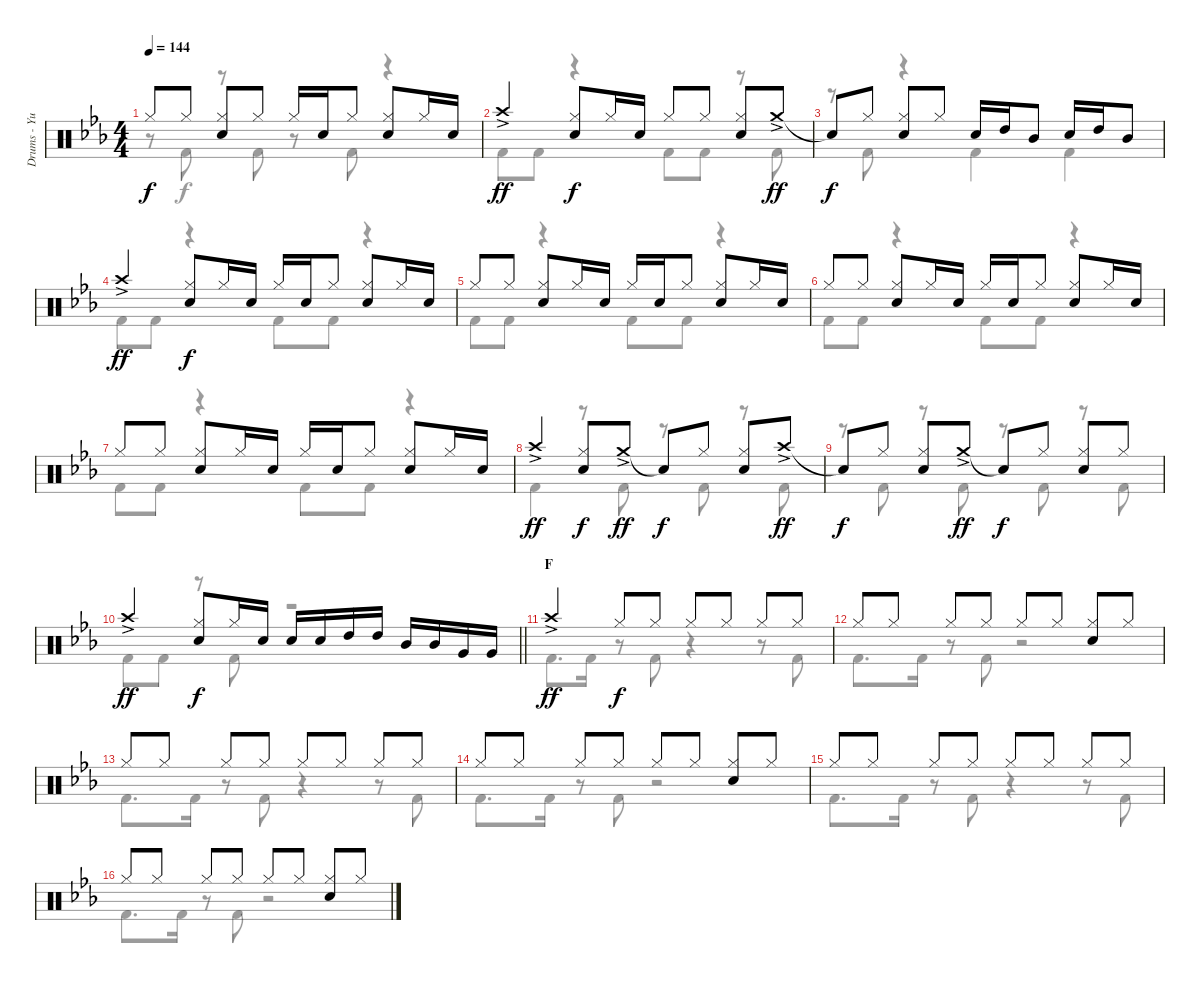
\track ("Drums - Yuuya" "Drums - Yu") {instrument percussion}
\staff {score}
\articulation defaults
\voice
\ts (4 4)
\tempo 144
\clef neutral
\ks eb "Hi-Hat (closed)".8{dy f} "Hi-Hat (closed)".8
("Hi-Hat (closed)" "Snare (hit) 2").8 "Hi-Hat (closed)".8 "Hi-Hat (closed)".16 "Snare (hit) 2".16 "Hi-Hat (closed)".8 ("Hi-Hat (closed)" "Snare (hit) 2").8 "Hi-Hat (closed)".16 "Snare (hit) 2".16 |
"Crash high (hit)"{ac}.4{dy ff} ("Hi-Hat (closed)" "Snare (hit) 2").8{dy f} "Hi-Hat (closed)".16 "Snare (hit) 2".16 "Hi-Hat (closed)".8 "Hi-Hat (closed)".8 ("Hi-Hat (closed)" "Snare (hit) 2").8 "Crash medium (hit)"{ac}.8{dy ff} |
"Snare (hit)"{t}.8{dy f} "Hi-Hat (closed)".8 ("Hi-Hat (closed)" "Snare (hit) 2").8 "Hi-Hat (closed)".8 "Snare (hit) 2".16 "High Tom (hit)".16 "Mid Tom (hit)".8 "Snare (hit) 2".16 "High Tom (hit)".16 "Mid Tom (hit)".8 |
"Crash high (hit)"{ac}.4{dy ff} ("Hi-Hat (closed)" "Snare (hit) 2").8{dy f} "Hi-Hat (closed)".16 "Snare (hit) 2".16 "Hi-Hat (closed)".16 "Snare (hit) 2".16 "Hi-Hat (closed)".8 ("Hi-Hat (closed)" "Snare (hit) 2").8 "Hi-Hat (closed)".16 "Snare (hit) 2".16 |
"Hi-Hat (closed)".8 "Hi-Hat (closed)".8 ("Hi-Hat (closed)" "Snare (hit) 2").8 "Hi-Hat (closed)".16 "Snare (hit) 2".16 "Hi-Hat (closed)".16 "Snare (hit) 2".16 "Hi-Hat (closed)".8 ("Hi-Hat (closed)" "Snare (hit) 2").8 "Hi-Hat (closed)".16 "Snare (hit) 2".16 |
"Hi-Hat (closed)".8 "Hi-Hat (closed)".8 ("Hi-Hat (closed)" "Snare (hit) 2").8 "Hi-Hat (closed)".16 "Snare (hit) 2".16 "Hi-Hat (closed)".16 "Snare (hit) 2".16 "Hi-Hat (closed)".8 ("Hi-Hat (closed)" "Snare (hit) 2").8 "Hi-Hat (closed)".16 "Snare (hit) 2".16 |
"Hi-Hat (closed)".8 "Hi-Hat (closed)".8 ("Hi-Hat (closed)" "Snare (hit) 2").8 "Hi-Hat (closed)".16 "Snare (hit) 2".16 "Hi-Hat (closed)".16 "Snare (hit) 2".16 "Hi-Hat (closed)".8 ("Hi-Hat (closed)" "Snare (hit) 2").8 "Hi-Hat (closed)".16 "Snare (hit) 2".16 |
"Crash high (hit)"{ac}.4{dy ff} ("Hi-Hat (closed)" "Snare (hit) 2").8{dy f} "Crash medium (hit)"{ac}.8{dy ff} "Snare (hit)"{t}.8{dy f} "Hi-Hat (closed)".8 ("Hi-Hat (closed)" "Snare (hit) 2").8 "Crash high (hit)"{ac}.8{dy ff} |
"Snare (hit)"{t}.8{dy f} "Hi-Hat (closed)".8 ("Hi-Hat (closed)" "Snare (hit) 2").8 "Crash medium (hit)"{ac}.8{dy ff} "Snare (hit)"{t}.8{dy f} "Hi-Hat (closed)".8 ("Hi-Hat (closed)" "Snare (hit) 2").8 "Hi-Hat (closed)".8 |
\barLineRight lightlight "Crash high (hit)"{ac}.4{dy ff}
("Hi-Hat (closed)" "Snare (hit) 2").8{dy f} "Hi-Hat (closed)".16 "Snare (hit) 2".16 "Snare (hit) 2".16 "Snare (hit) 2".16 "High Tom (hit)".16 "High Tom (hit)".16 "Mid Tom (hit)".16 "Mid Tom (hit)".16 "Very Low Tom (hit)".16 "Very Low Tom (hit)".16 |
\section ("" "F")
"Crash high (hit)"{ac}.4{dy ff} "Hi-Hat (closed)".8{dy f} "Hi-Hat (closed)".8 "Hi-Hat (closed)".8 "Hi-Hat (closed)".8 "Hi-Hat (closed)".8 "Hi-Hat (closed)".8 |
"Hi-Hat (closed)".8 "Hi-Hat (closed)".8 "Hi-Hat (closed)".8 "Hi-Hat (closed)".8 "Hi-Hat (closed)".8 "Hi-Hat (closed)".8 ("Hi-Hat (closed)" "Snare (hit) 2").8 "Hi-Hat (closed)".8 |
"Hi-Hat (closed)".8 "Hi-Hat (closed)".8 "Hi-Hat (closed)".8 "Hi-Hat (closed)".8 "Hi-Hat (closed)".8 "Hi-Hat (closed)".8 "Hi-Hat (closed)".8 "Hi-Hat (closed)".8 |
"Hi-Hat (closed)".8 "Hi-Hat (closed)".8 "Hi-Hat (closed)".8 "Hi-Hat (closed)".8 "Hi-Hat (closed)".8 "Hi-Hat (closed)".8 ("Hi-Hat (closed)" "Snare (hit) 2").8 "Hi-Hat (closed)".8 |
"Hi-Hat (closed)".8 "Hi-Hat (closed)".8 "Hi-Hat (closed)".8 "Hi-Hat (closed)".8 "Hi-Hat (closed)".8 "Hi-Hat (closed)".8 "Hi-Hat (closed)".8 "Hi-Hat (closed)".8 |
"Hi-Hat (closed)".8 "Hi-Hat (closed)".8 "Hi-Hat (closed)".8 "Hi-Hat (closed)".8 "Hi-Hat (closed)".8 "Hi-Hat (closed)".8 ("Hi-Hat (closed)" "Snare (hit) 2").8 "Hi-Hat (closed)".8
\voice
\clef neutral
\ottava regular
\simile none
\ks eb
r.8{dy f} "Kick (hit) 2".8 r.8 "Kick (hit) 2".8 r.8 "Kick (hit) 2".8 r.4 |
"Kick (hit) 2".8 "Kick (hit) 2".8 r.4 "Kick (hit) 2".8 "Kick (hit) 2".8 r.8 "Kick (hit) 2".8 |
r.8 "Kick (hit) 2".8 r.4 "Kick (hit) 2".4 "Kick (hit) 2".4 |
"Kick (hit) 2".8 "Kick (hit) 2".8 r.4 "Kick (hit) 2".8 "Kick (hit) 2".8 r.4 |
"Kick (hit) 2".8 "Kick (hit) 2".8 r.4 "Kick (hit) 2".8 "Kick (hit) 2".8 r.4 |
"Kick (hit) 2".8 "Kick (hit) 2".8 r.4 "Kick (hit) 2".8 "Kick (hit) 2".8 r.4 |
"Kick (hit) 2".8 "Kick (hit) 2".8 r.4 "Kick (hit) 2".8 "Kick (hit) 2".8 r.4 |
"Kick (hit) 2".4 r.8 "Kick (hit) 2".8 r.8 "Kick (hit) 2".8 r.8 "Kick (hit) 2".8 |
r.8 "Kick (hit) 2".8 r.8 "Kick (hit) 2".8 r.8 "Kick (hit) 2".8 r.8 "Kick (hit) 2".8 |
\barLineRight lightlight "Kick (hit) 2".8 "Kick (hit) 2".8
r.8 "Kick (hit) 2".8 r.2 |
"Kick (hit) 2".8{d} "Kick (hit) 2".16 r.8 "Kick (hit) 2".8 r.4 r.8 "Kick (hit) 2".8 |
"Kick (hit) 2".8{d} "Kick (hit) 2".16 r.8 "Kick (hit) 2".8 r.2 |
"Kick (hit) 2".8{d} "Kick (hit) 2".16 r.8 "Kick (hit) 2".8 r.4 r.8 "Kick (hit) 2".8 |
"Kick (hit) 2".8{d} "Kick (hit) 2".16 r.8 "Kick (hit) 2".8 r.2 |
"Kick (hit) 2".8{d} "Kick (hit) 2".16 r.8 "Kick (hit) 2".8 r.4 r.8 "Kick (hit) 2".8 |
"Kick (hit) 2".8{d} "Kick (hit) 2".16 r.8 "Kick (hit) 2".8 r.2
